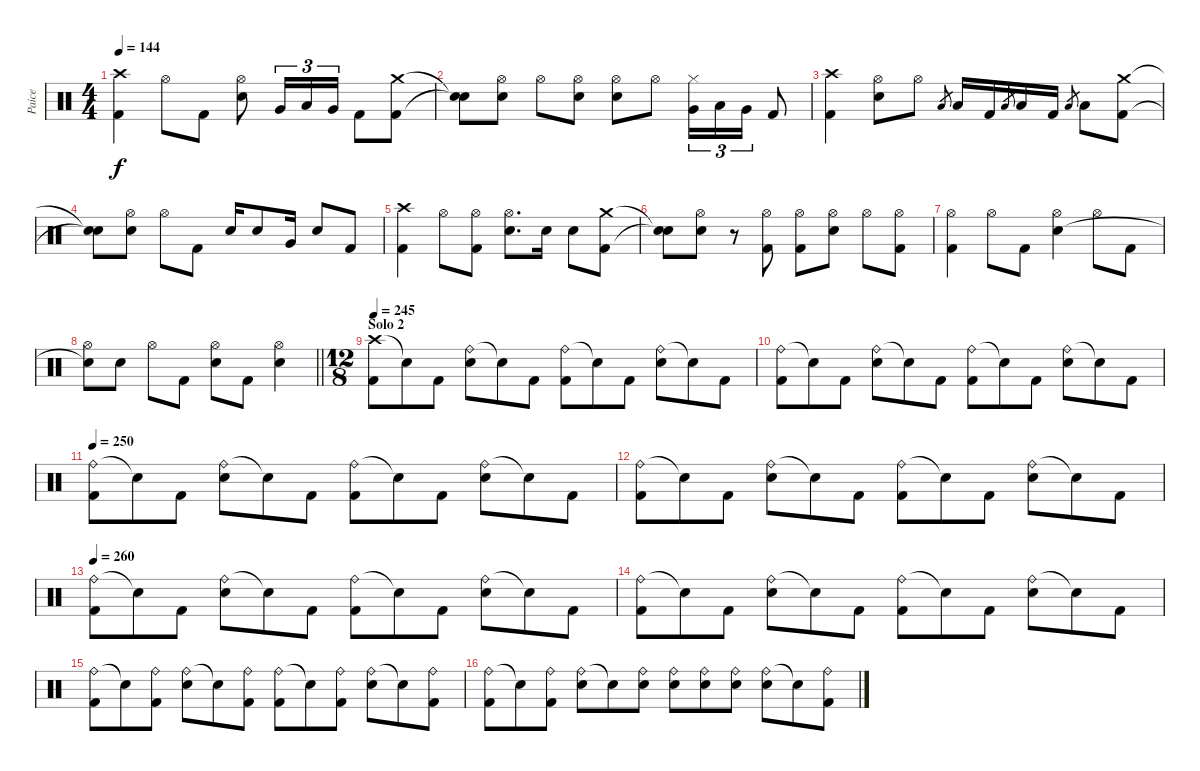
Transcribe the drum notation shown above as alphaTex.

\track ("Paice" "Paice") {instrument percussion}
\staff {score}
\articulation defaults
\ts (4 4)
\tempo 144
\clef neutral
\ks c
("Crash high (hit)" "Kick (hit) 2").4{dy f} "Hi-Hat (open)".8 "Kick (hit) 2".8 ("Hi-Hat (open)" "Electric Snare (hit)").8 "Very Low Tom (hit)".16{tu (3 2)} "Low Tom (hit)".16{tu (3 2)} "Very Low Tom (hit)".16{tu (3 2)} "Kick (hit) 2".8 ("Crash medium (hit)" "Kick (hit) 2").8 |
("Snare (hit)"{t} "Snare (hit)"{t}).8 ("Hi-Hat (open)" "Electric Snare (hit)").8 "Hi-Hat (open)".8 ("Hi-Hat (open)" "Electric Snare (hit)").8 ("Hi-Hat (open)" "Electric Snare (hit)").8 "Hi-Hat (open)".8 ("Hi-Hat (closed)" "Very Low Tom (hit)").16{tu (3 2)} "Low Tom (hit)".16{tu (3 2)} "Very Low Tom (hit)".16{tu (3 2)} "Kick (hit) 2".8 |
("Crash high (hit)" "Kick (hit) 2").4 ("Hi-Hat (open)" "Electric Snare (hit)").8 "Hi-Hat (open)".8 "Low Floor Tom (hit)".8{gr} "Low Floor Tom (hit)".16 "Kick (hit) 2".16 "Low Floor Tom (hit)".8{gr} "Low Floor Tom (hit)".16 "Kick (hit) 2".16 "Low Floor Tom (hit)".8{gr} "Low Floor Tom (hit)".8 ("Crash medium (hit)" "Kick (hit) 2").8 |
("Snare (hit)"{t} "Snare (hit)"{t}).8 ("Hi-Hat (open)" "Electric Snare (hit)").8 "Hi-Hat (open)".8 "Kick (hit) 2".8 "Electric Snare (hit)".16 "Electric Snare (hit)".8 "Very Low Tom (hit)".16 "Electric Snare (hit)".8 "Kick (hit) 2".8 |
("Crash high (hit)" "Kick (hit) 2").4 "Hi-Hat (open)".8 ("Hi-Hat (open)" "Kick (hit) 2").8 ("Hi-Hat (open)" "Electric Snare (hit)").8{d} "Electric Snare (hit)".16 "Electric Snare (hit)".8 ("Crash medium (hit)" "Kick (hit) 2").8 |
("Snare (hit)"{t} "Snare (hit)"{t}).8 ("Hi-Hat (open)" "Electric Snare (hit)").8 r.8 ("Hi-Hat (open)" "Kick (hit) 2").8 ("Hi-Hat (open)" "Kick (hit) 2").8 ("Hi-Hat (open)" "Electric Snare (hit)").8 "Hi-Hat (open)".8 ("Hi-Hat (open)" "Kick (hit) 2").8 |
("Hi-Hat (open)" "Kick (hit) 2").4 "Hi-Hat (open)".8 "Kick (hit) 2".8 ("Hi-Hat (open)" "Electric Snare (hit)").4 "Hi-Hat (open)".8 "Kick (hit) 2".8 |
\barLineRight lightlight
("Hi-Hat (open)" "Snare (hit)"{t}).8 "Electric Snare (hit)".8 "Hi-Hat (open)".8 "Kick (hit) 2".8 ("Hi-Hat (open)" "Electric Snare (hit)").8 "Kick (hit) 2".8 ("Hi-Hat (open)" "Electric Snare (hit)").4 |
\ts (12 8)
\section ("" "Solo 2")
\tempo 245
("Crash high (hit)" "Kick (hit) 2").8 "Snare (hit)"{t}.8 "Kick (hit) 2".8 ("Ride (bell)" "Electric Snare (hit)").8 "Snare (hit)"{t}.8 "Kick (hit) 2".8 ("Ride (bell)" "Kick (hit) 2").8 "Snare (hit)"{t}.8 "Kick (hit) 2".8 ("Ride (bell)" "Electric Snare (hit)").8 "Snare (hit)"{t}.8 "Kick (hit) 2".8 |
("Ride (bell)" "Kick (hit) 2").8 "Snare (hit)"{t}.8 "Kick (hit) 2".8 ("Ride (bell)" "Electric Snare (hit)").8 "Snare (hit)"{t}.8 "Kick (hit) 2".8 ("Ride (bell)" "Kick (hit) 2").8 "Snare (hit)"{t}.8 "Kick (hit) 2".8 ("Ride (bell)" "Electric Snare (hit)").8 "Snare (hit)"{t}.8 "Kick (hit) 2".8 |
\tempo 250
("Ride (bell)" "Kick (hit) 2").8 "Snare (hit)"{t}.8 "Kick (hit) 2".8 ("Ride (bell)" "Electric Snare (hit)").8 "Snare (hit)"{t}.8 "Kick (hit) 2".8 ("Ride (bell)" "Kick (hit) 2").8 "Snare (hit)"{t}.8 "Kick (hit) 2".8 ("Ride (bell)" "Electric Snare (hit)").8 "Snare (hit)"{t}.8 "Kick (hit) 2".8 |
("Ride (bell)" "Kick (hit) 2").8 "Snare (hit)"{t}.8 "Kick (hit) 2".8 ("Ride (bell)" "Electric Snare (hit)").8 "Snare (hit)"{t}.8 "Kick (hit) 2".8 ("Ride (bell)" "Kick (hit) 2").8 "Snare (hit)"{t}.8 "Kick (hit) 2".8 ("Ride (bell)" "Electric Snare (hit)").8 "Snare (hit)"{t}.8 "Kick (hit) 2".8 |
\tempo 260
("Ride (bell)" "Kick (hit) 2").8 "Snare (hit)"{t}.8 "Kick (hit) 2".8 ("Ride (bell)" "Electric Snare (hit)").8 "Snare (hit)"{t}.8 "Kick (hit) 2".8 ("Ride (bell)" "Kick (hit) 2").8 "Snare (hit)"{t}.8 "Kick (hit) 2".8 ("Ride (bell)" "Electric Snare (hit)").8 "Snare (hit)"{t}.8 "Kick (hit) 2".8 |
("Ride (bell)" "Kick (hit) 2").8 "Snare (hit)"{t}.8 "Kick (hit) 2".8 ("Ride (bell)" "Electric Snare (hit)").8 "Snare (hit)"{t}.8 "Kick (hit) 2".8 ("Ride (bell)" "Kick (hit) 2").8 "Snare (hit)"{t}.8 "Kick (hit) 2".8 ("Ride (bell)" "Electric Snare (hit)").8 "Snare (hit)"{t}.8 "Kick (hit) 2".8 |
("Ride (bell)" "Kick (hit) 2").8 "Snare (hit)"{t}.8 ("Ride (bell)" "Kick (hit) 2").8 ("Ride (bell)" "Electric Snare (hit)").8 "Snare (hit)"{t}.8 ("Ride (bell)" "Kick (hit) 2").8 ("Ride (bell)" "Kick (hit) 2").8 "Snare (hit)"{t}.8 ("Ride (bell)" "Kick (hit) 2").8 ("Ride (bell)" "Electric Snare (hit)").8 "Snare (hit)"{t}.8 ("Ride (bell)" "Kick (hit) 2").8 |
("Ride (bell)" "Kick (hit) 2").8 "Snare (hit)"{t}.8 ("Ride (bell)" "Kick (hit) 2").8 ("Ride (bell)" "Electric Snare (hit)").8 "Snare (hit)"{t}.8 ("Ride (bell)" "Electric Snare (hit)").8 ("Ride (bell)" "Electric Snare (hit)").8 ("Ride (bell)" "Electric Snare (hit)").8 ("Ride (bell)" "Electric Snare (hit)").8 ("Ride (bell)" "Electric Snare (hit)").8 "Snare (hit)"{t}.8 ("Ride (bell)" "Kick (hit) 2").8
